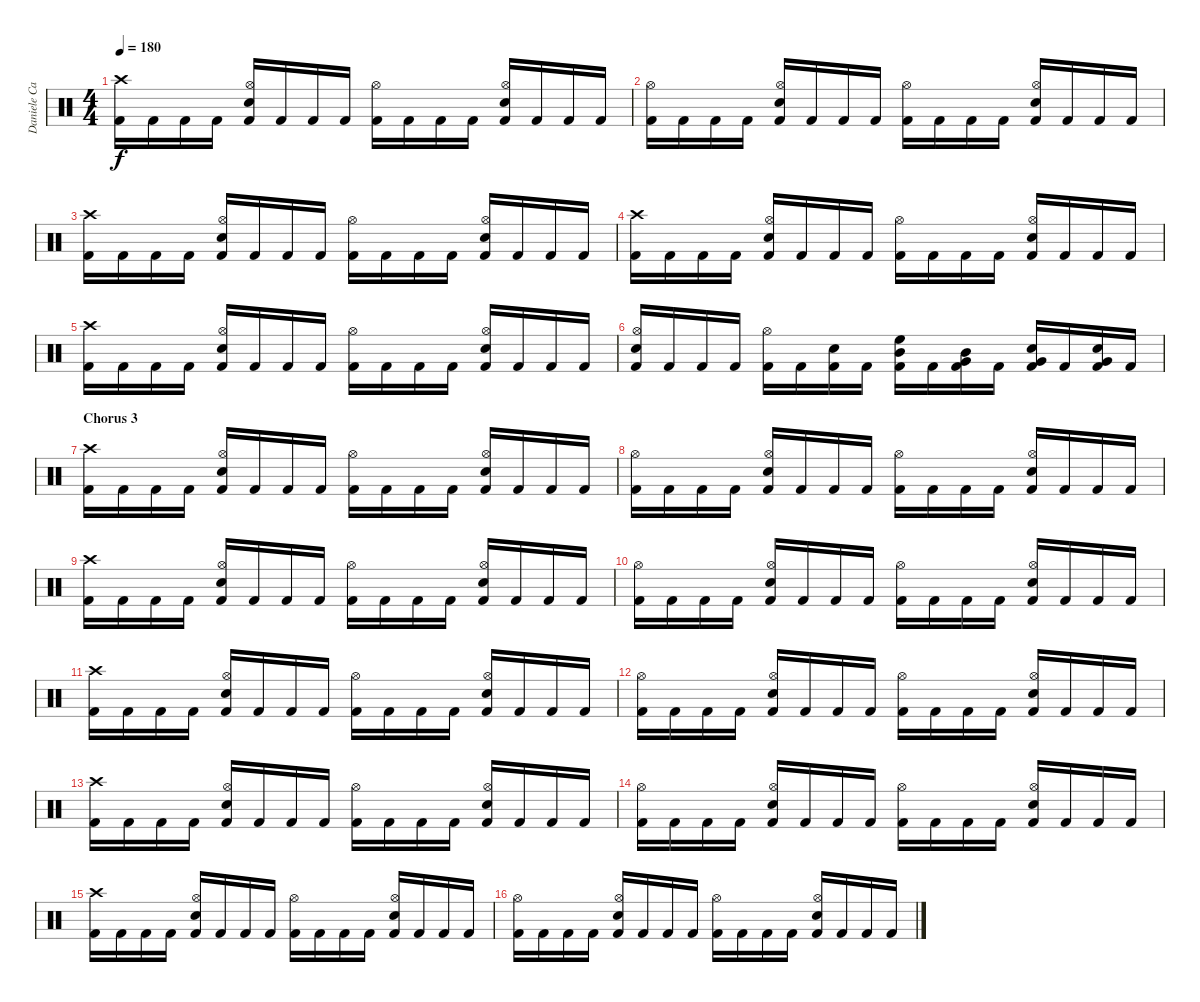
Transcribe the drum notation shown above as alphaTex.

\track ("Daniele Carbonera " "Daniele Ca") {instrument percussion}
\staff {score}
\articulation defaults
\ts (4 4)
\tempo 180
\clef neutral
\ks c
("Crash high (hit)" "Kick (hit) 2").16{dy f} "Kick (hit) 2".16 "Kick (hit) 2".16 "Kick (hit) 2".16 ("Hi-Hat (open)" "Electric Snare (hit)" "Kick (hit) 2").16 "Kick (hit) 2".16 "Kick (hit) 2".16 "Kick (hit) 2".16 ("Hi-Hat (open)" "Kick (hit) 2").16 "Kick (hit) 2".16 "Kick (hit) 2".16 "Kick (hit) 2".16 ("Hi-Hat (open)" "Electric Snare (hit)" "Kick (hit) 2").16 "Kick (hit) 2".16 "Kick (hit) 2".16 "Kick (hit) 2".16 |
("Hi-Hat (open)" "Kick (hit) 2").16 "Kick (hit) 2".16 "Kick (hit) 2".16 "Kick (hit) 2".16 ("Hi-Hat (open)" "Electric Snare (hit)" "Kick (hit) 2").16 "Kick (hit) 2".16 "Kick (hit) 2".16 "Kick (hit) 2".16 ("Hi-Hat (open)" "Kick (hit) 2").16 "Kick (hit) 2".16 "Kick (hit) 2".16 "Kick (hit) 2".16 ("Hi-Hat (open)" "Electric Snare (hit)" "Kick (hit) 2").16 "Kick (hit) 2".16 "Kick (hit) 2".16 "Kick (hit) 2".16 |
("Crash high (hit)" "Kick (hit) 2").16 "Kick (hit) 2".16 "Kick (hit) 2".16 "Kick (hit) 2".16 ("Hi-Hat (open)" "Electric Snare (hit)" "Kick (hit) 2").16 "Kick (hit) 2".16 "Kick (hit) 2".16 "Kick (hit) 2".16 ("Hi-Hat (open)" "Kick (hit) 2").16 "Kick (hit) 2".16 "Kick (hit) 2".16 "Kick (hit) 2".16 ("Hi-Hat (open)" "Electric Snare (hit)" "Kick (hit) 2").16 "Kick (hit) 2".16 "Kick (hit) 2".16 "Kick (hit) 2".16 |
("Crash high (hit)" "Kick (hit) 2").16 "Kick (hit) 2".16 "Kick (hit) 2".16 "Kick (hit) 2".16 ("Hi-Hat (open)" "Electric Snare (hit)" "Kick (hit) 2").16 "Kick (hit) 2".16 "Kick (hit) 2".16 "Kick (hit) 2".16 ("Hi-Hat (open)" "Kick (hit) 2").16 "Kick (hit) 2".16 "Kick (hit) 2".16 "Kick (hit) 2".16 ("Hi-Hat (open)" "Electric Snare (hit)" "Kick (hit) 2").16 "Kick (hit) 2".16 "Kick (hit) 2".16 "Kick (hit) 2".16 |
("Crash high (hit)" "Kick (hit) 2").16 "Kick (hit) 2".16 "Kick (hit) 2".16 "Kick (hit) 2".16 ("Hi-Hat (open)" "Electric Snare (hit)" "Kick (hit) 2").16 "Kick (hit) 2".16 "Kick (hit) 2".16 "Kick (hit) 2".16 ("Hi-Hat (open)" "Kick (hit) 2").16 "Kick (hit) 2".16 "Kick (hit) 2".16 "Kick (hit) 2".16 ("Hi-Hat (open)" "Electric Snare (hit)" "Kick (hit) 2").16 "Kick (hit) 2".16 "Kick (hit) 2".16 "Kick (hit) 2".16 |
("Hi-Hat (open)" "Electric Snare (hit)" "Kick (hit) 2").16 "Kick (hit) 2".16 "Kick (hit) 2".16 "Kick (hit) 2".16 ("Hi-Hat (open)" "Kick (hit) 2").16 "Kick (hit) 2".16 ("Electric Snare (hit)" "Kick (hit) 2").16 "Kick (hit) 2".16 ("Mid Tom (hit)" "High Floor Tom (hit)" "Kick (hit) 2").16 "Kick (hit) 2".16 ("Mid Tom (hit)" "Very Low Tom (hit)" "Kick (hit) 2").16 "Kick (hit) 2".16 ("Very Low Tom (hit)" "Electric Snare (hit)" "Kick (hit) 2").16 "Kick (hit) 2".16 ("Very Low Tom (hit)" "Electric Snare (hit)" "Kick (hit) 2").16 "Kick (hit) 2".16 |
\section ("" "Chorus 3")
("Crash high (hit)" "Kick (hit) 2").16 "Kick (hit) 2".16 "Kick (hit) 2".16 "Kick (hit) 2".16 ("Hi-Hat (open)" "Electric Snare (hit)" "Kick (hit) 2").16 "Kick (hit) 2".16 "Kick (hit) 2".16 "Kick (hit) 2".16 ("Hi-Hat (open)" "Kick (hit) 2").16 "Kick (hit) 2".16 "Kick (hit) 2".16 "Kick (hit) 2".16 ("Hi-Hat (open)" "Electric Snare (hit)" "Kick (hit) 2").16 "Kick (hit) 2".16 "Kick (hit) 2".16 "Kick (hit) 2".16 |
("Hi-Hat (open)" "Kick (hit) 2").16 "Kick (hit) 2".16 "Kick (hit) 2".16 "Kick (hit) 2".16 ("Hi-Hat (open)" "Electric Snare (hit)" "Kick (hit) 2").16 "Kick (hit) 2".16 "Kick (hit) 2".16 "Kick (hit) 2".16 ("Hi-Hat (open)" "Kick (hit) 2").16 "Kick (hit) 2".16 "Kick (hit) 2".16 "Kick (hit) 2".16 ("Hi-Hat (open)" "Electric Snare (hit)" "Kick (hit) 2").16 "Kick (hit) 2".16 "Kick (hit) 2".16 "Kick (hit) 2".16 |
("Crash high (hit)" "Kick (hit) 2").16 "Kick (hit) 2".16 "Kick (hit) 2".16 "Kick (hit) 2".16 ("Hi-Hat (open)" "Electric Snare (hit)" "Kick (hit) 2").16 "Kick (hit) 2".16 "Kick (hit) 2".16 "Kick (hit) 2".16 ("Hi-Hat (open)" "Kick (hit) 2").16 "Kick (hit) 2".16 "Kick (hit) 2".16 "Kick (hit) 2".16 ("Hi-Hat (open)" "Electric Snare (hit)" "Kick (hit) 2").16 "Kick (hit) 2".16 "Kick (hit) 2".16 "Kick (hit) 2".16 |
("Hi-Hat (open)" "Kick (hit) 2").16 "Kick (hit) 2".16 "Kick (hit) 2".16 "Kick (hit) 2".16 ("Hi-Hat (open)" "Electric Snare (hit)" "Kick (hit) 2").16 "Kick (hit) 2".16 "Kick (hit) 2".16 "Kick (hit) 2".16 ("Hi-Hat (open)" "Kick (hit) 2").16 "Kick (hit) 2".16 "Kick (hit) 2".16 "Kick (hit) 2".16 ("Hi-Hat (open)" "Electric Snare (hit)" "Kick (hit) 2").16 "Kick (hit) 2".16 "Kick (hit) 2".16 "Kick (hit) 2".16 |
("Crash high (hit)" "Kick (hit) 2").16 "Kick (hit) 2".16 "Kick (hit) 2".16 "Kick (hit) 2".16 ("Hi-Hat (open)" "Electric Snare (hit)" "Kick (hit) 2").16 "Kick (hit) 2".16 "Kick (hit) 2".16 "Kick (hit) 2".16 ("Hi-Hat (open)" "Kick (hit) 2").16 "Kick (hit) 2".16 "Kick (hit) 2".16 "Kick (hit) 2".16 ("Hi-Hat (open)" "Electric Snare (hit)" "Kick (hit) 2").16 "Kick (hit) 2".16 "Kick (hit) 2".16 "Kick (hit) 2".16 |
("Hi-Hat (open)" "Kick (hit) 2").16 "Kick (hit) 2".16 "Kick (hit) 2".16 "Kick (hit) 2".16 ("Hi-Hat (open)" "Electric Snare (hit)" "Kick (hit) 2").16 "Kick (hit) 2".16 "Kick (hit) 2".16 "Kick (hit) 2".16 ("Hi-Hat (open)" "Kick (hit) 2").16 "Kick (hit) 2".16 "Kick (hit) 2".16 "Kick (hit) 2".16 ("Hi-Hat (open)" "Electric Snare (hit)" "Kick (hit) 2").16 "Kick (hit) 2".16 "Kick (hit) 2".16 "Kick (hit) 2".16 |
("Crash high (hit)" "Kick (hit) 2").16 "Kick (hit) 2".16 "Kick (hit) 2".16 "Kick (hit) 2".16 ("Hi-Hat (open)" "Electric Snare (hit)" "Kick (hit) 2").16 "Kick (hit) 2".16 "Kick (hit) 2".16 "Kick (hit) 2".16 ("Hi-Hat (open)" "Kick (hit) 2").16 "Kick (hit) 2".16 "Kick (hit) 2".16 "Kick (hit) 2".16 ("Hi-Hat (open)" "Electric Snare (hit)" "Kick (hit) 2").16 "Kick (hit) 2".16 "Kick (hit) 2".16 "Kick (hit) 2".16 |
("Hi-Hat (open)" "Kick (hit) 2").16 "Kick (hit) 2".16 "Kick (hit) 2".16 "Kick (hit) 2".16 ("Hi-Hat (open)" "Electric Snare (hit)" "Kick (hit) 2").16 "Kick (hit) 2".16 "Kick (hit) 2".16 "Kick (hit) 2".16 ("Hi-Hat (open)" "Kick (hit) 2").16 "Kick (hit) 2".16 "Kick (hit) 2".16 "Kick (hit) 2".16 ("Hi-Hat (open)" "Electric Snare (hit)" "Kick (hit) 2").16 "Kick (hit) 2".16 "Kick (hit) 2".16 "Kick (hit) 2".16 |
("Crash high (hit)" "Kick (hit) 2").16 "Kick (hit) 2".16 "Kick (hit) 2".16 "Kick (hit) 2".16 ("Hi-Hat (open)" "Electric Snare (hit)" "Kick (hit) 2").16 "Kick (hit) 2".16 "Kick (hit) 2".16 "Kick (hit) 2".16 ("Hi-Hat (open)" "Kick (hit) 2").16 "Kick (hit) 2".16 "Kick (hit) 2".16 "Kick (hit) 2".16 ("Hi-Hat (open)" "Electric Snare (hit)" "Kick (hit) 2").16 "Kick (hit) 2".16 "Kick (hit) 2".16 "Kick (hit) 2".16 |
("Hi-Hat (open)" "Kick (hit) 2").16 "Kick (hit) 2".16 "Kick (hit) 2".16 "Kick (hit) 2".16 ("Hi-Hat (open)" "Electric Snare (hit)" "Kick (hit) 2").16 "Kick (hit) 2".16 "Kick (hit) 2".16 "Kick (hit) 2".16 ("Hi-Hat (open)" "Kick (hit) 2").16 "Kick (hit) 2".16 "Kick (hit) 2".16 "Kick (hit) 2".16 ("Hi-Hat (open)" "Electric Snare (hit)" "Kick (hit) 2").16 "Kick (hit) 2".16 "Kick (hit) 2".16 "Kick (hit) 2".16
